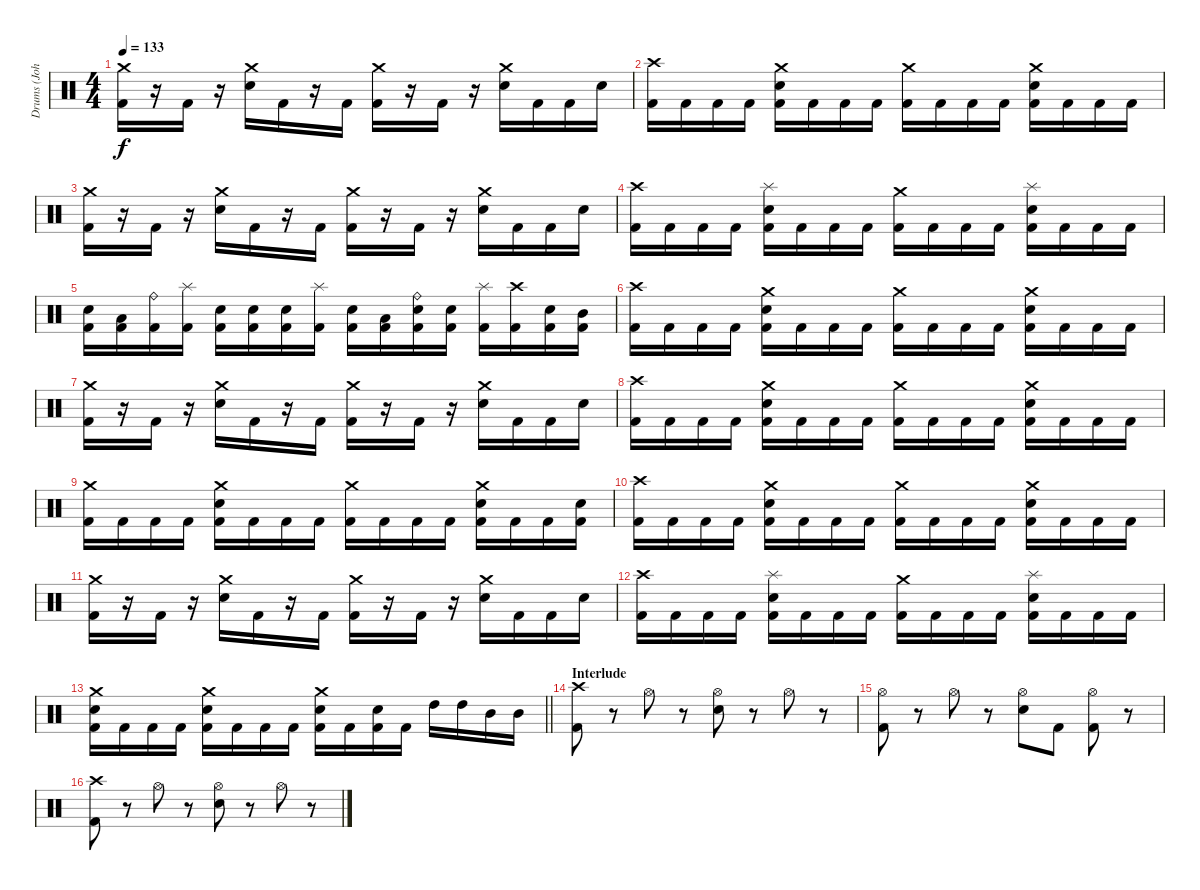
\track ("Drums (John)" "Drums (Joh") {instrument percussion}
\staff {score}
\articulation defaults
\ts (4 4)
\tempo 133
\clef neutral
\ks c
("Crash medium (hit)" "Kick (hit) 2").16{dy f} r.16 "Kick (hit) 2".16 r.16 ("Crash medium (hit)" "Electric Snare (hit)").16 "Kick (hit) 2".16 r.16 "Kick (hit) 2".16 ("Crash medium (hit)" "Kick (hit) 2").16 r.16 "Kick (hit) 2".16 r.16 ("Crash medium (hit)" "Electric Snare (hit)").16 "Kick (hit) 2".16 "Kick (hit) 2".16 "Electric Snare (hit)".16 |
("Crash high (hit)" "Kick (hit) 2").16 "Kick (hit) 2".16 "Kick (hit) 2".16 "Kick (hit) 2".16 ("Crash medium (hit)" "Electric Snare (hit)" "Kick (hit) 2").16 "Kick (hit) 2".16 "Kick (hit) 2".16 "Kick (hit) 2".16 ("Crash medium (hit)" "Kick (hit) 2").16 "Kick (hit) 2".16 "Kick (hit) 2".16 "Kick (hit) 2".16 ("Crash medium (hit)" "Electric Snare (hit)" "Kick (hit) 2").16 "Kick (hit) 2".16 "Kick (hit) 2".16 "Kick (hit) 2".16 |
("Crash medium (hit)" "Kick (hit) 2").16 r.16 "Kick (hit) 2".16 r.16 ("Crash medium (hit)" "Electric Snare (hit)").16 "Kick (hit) 2".16 r.16 "Kick (hit) 2".16 ("Crash medium (hit)" "Kick (hit) 2").16 r.16 "Kick (hit) 2".16 r.16 ("Crash medium (hit)" "Electric Snare (hit)").16 "Kick (hit) 2".16 "Kick (hit) 2".16 "Electric Snare (hit)".16 |
("Crash high (hit)" "Kick (hit) 2").16 "Kick (hit) 2".16 "Kick (hit) 2".16 "Kick (hit) 2".16 ("Splash (hit)" "Electric Snare (hit)" "Kick (hit) 2").16 "Kick (hit) 2".16 "Kick (hit) 2".16 "Kick (hit) 2".16 ("Crash medium (hit)" "Kick (hit) 2").16 "Kick (hit) 2".16 "Kick (hit) 2".16 "Kick (hit) 2".16 ("Splash (hit)" "Electric Snare (hit)" "Kick (hit) 2").16 "Kick (hit) 2".16 "Kick (hit) 2".16 "Kick (hit) 2".16 |
("Electric Snare (hit)" "Kick (hit) 2").16 ("Low Tom (hit)" "Kick (hit) 2").16 ("Ride (bell)" "Kick (hit) 2").16 ("Splash (hit)" "Kick (hit) 2").16 ("Electric Snare (hit)" "Kick (hit) 2").16 ("Electric Snare (hit)" "Kick (hit) 2").16 ("Electric Snare (hit)" "Kick (hit) 2").16 ("Splash (hit)" "Kick (hit) 2").16 ("Electric Snare (hit)" "Kick (hit) 2").16 ("Low Tom (hit)" "Kick (hit) 2").16 ("Ride (bell)" "Electric Snare (hit)" "Kick (hit) 2").16 ("Electric Snare (hit)" "Kick (hit) 2").16 ("Splash (hit)" "Kick (hit) 2").16 ("Crash high (hit)" "Kick (hit) 2").16 ("Electric Snare (hit)" "Kick (hit) 2").16 ("Mid Tom (hit)" "Kick (hit) 2").16 |
("Crash high (hit)" "Kick (hit) 2").16 "Kick (hit) 2".16 "Kick (hit) 2".16 "Kick (hit) 2".16 ("Crash medium (hit)" "Electric Snare (hit)" "Kick (hit) 2").16 "Kick (hit) 2".16 "Kick (hit) 2".16 "Kick (hit) 2".16 ("Crash medium (hit)" "Kick (hit) 2").16 "Kick (hit) 2".16 "Kick (hit) 2".16 "Kick (hit) 2".16 ("Crash medium (hit)" "Electric Snare (hit)" "Kick (hit) 2").16 "Kick (hit) 2".16 "Kick (hit) 2".16 "Kick (hit) 2".16 |
("Crash medium (hit)" "Kick (hit) 2").16 r.16 "Kick (hit) 2".16 r.16 ("Crash medium (hit)" "Electric Snare (hit)").16 "Kick (hit) 2".16 r.16 "Kick (hit) 2".16 ("Crash medium (hit)" "Kick (hit) 2").16 r.16 "Kick (hit) 2".16 r.16 ("Crash medium (hit)" "Electric Snare (hit)").16 "Kick (hit) 2".16 "Kick (hit) 2".16 "Electric Snare (hit)".16 |
("Crash high (hit)" "Kick (hit) 2").16 "Kick (hit) 2".16 "Kick (hit) 2".16 "Kick (hit) 2".16 ("Crash medium (hit)" "Electric Snare (hit)" "Kick (hit) 2").16 "Kick (hit) 2".16 "Kick (hit) 2".16 "Kick (hit) 2".16 ("Crash medium (hit)" "Kick (hit) 2").16 "Kick (hit) 2".16 "Kick (hit) 2".16 "Kick (hit) 2".16 ("Crash medium (hit)" "Electric Snare (hit)" "Kick (hit) 2").16 "Kick (hit) 2".16 "Kick (hit) 2".16 "Kick (hit) 2".16 |
("Crash medium (hit)" "Kick (hit) 2").16 "Kick (hit) 2".16 "Kick (hit) 2".16 "Kick (hit) 2".16 ("Crash medium (hit)" "Electric Snare (hit)" "Kick (hit) 2").16 "Kick (hit) 2".16 "Kick (hit) 2".16 "Kick (hit) 2".16 ("Crash medium (hit)" "Kick (hit) 2").16 "Kick (hit) 2".16 "Kick (hit) 2".16 "Kick (hit) 2".16 ("Crash medium (hit)" "Electric Snare (hit)" "Kick (hit) 2").16 "Kick (hit) 2".16 "Kick (hit) 2".16 ("Electric Snare (hit)" "Kick (hit) 2").16 |
("Crash high (hit)" "Kick (hit) 2").16 "Kick (hit) 2".16 "Kick (hit) 2".16 "Kick (hit) 2".16 ("Crash medium (hit)" "Electric Snare (hit)" "Kick (hit) 2").16 "Kick (hit) 2".16 "Kick (hit) 2".16 "Kick (hit) 2".16 ("Crash medium (hit)" "Kick (hit) 2").16 "Kick (hit) 2".16 "Kick (hit) 2".16 "Kick (hit) 2".16 ("Crash medium (hit)" "Electric Snare (hit)" "Kick (hit) 2").16 "Kick (hit) 2".16 "Kick (hit) 2".16 "Kick (hit) 2".16 |
("Crash medium (hit)" "Kick (hit) 2").16 r.16 "Kick (hit) 2".16 r.16 ("Crash medium (hit)" "Electric Snare (hit)").16 "Kick (hit) 2".16 r.16 "Kick (hit) 2".16 ("Crash medium (hit)" "Kick (hit) 2").16 r.16 "Kick (hit) 2".16 r.16 ("Crash medium (hit)" "Electric Snare (hit)").16 "Kick (hit) 2".16 "Kick (hit) 2".16 "Electric Snare (hit)".16 |
("Crash high (hit)" "Kick (hit) 2").16 "Kick (hit) 2".16 "Kick (hit) 2".16 "Kick (hit) 2".16 ("Splash (hit)" "Electric Snare (hit)" "Kick (hit) 2").16 "Kick (hit) 2".16 "Kick (hit) 2".16 "Kick (hit) 2".16 ("Crash medium (hit)" "Kick (hit) 2").16 "Kick (hit) 2".16 "Kick (hit) 2".16 "Kick (hit) 2".16 ("Splash (hit)" "Electric Snare (hit)" "Kick (hit) 2").16 "Kick (hit) 2".16 "Kick (hit) 2".16 "Kick (hit) 2".16 |
\barLineRight lightlight
("Crash medium (hit)" "Electric Snare (hit)" "Kick (hit) 2").16 "Kick (hit) 2".16 "Kick (hit) 2".16 "Kick (hit) 2".16 ("Crash medium (hit)" "Electric Snare (hit)" "Kick (hit) 2").16 "Kick (hit) 2".16 "Kick (hit) 2".16 "Kick (hit) 2".16 ("Crash medium (hit)" "Electric Snare (hit)" "Kick (hit) 2").16 "Kick (hit) 2".16 ("Electric Snare (hit)" "Kick (hit) 2").16 "Kick (hit) 2".16 "High Tom (hit)".16 "High Tom (hit)".16 "Mid Tom (hit)".16 "Mid Tom (hit)".16 |
\section ("" "Interlude")
("Crash high (hit)" "Kick (hit) 2").8 r.8 "Hi-Hat (open)".8 r.8 ("Hi-Hat (open)" "Electric Snare (hit)").8 r.8 "Hi-Hat (open)".8 r.8 |
("Hi-Hat (open)" "Kick (hit) 2").8 r.8 "Hi-Hat (open)".8 r.8 ("Hi-Hat (open)" "Electric Snare (hit)").8 "Kick (hit) 2".8 ("Hi-Hat (open)" "Kick (hit) 2").8 r.8 |
("Crash high (hit)" "Kick (hit) 2").8 r.8 "Hi-Hat (open)".8 r.8 ("Hi-Hat (open)" "Electric Snare (hit)").8 r.8 "Hi-Hat (open)".8 r.8
